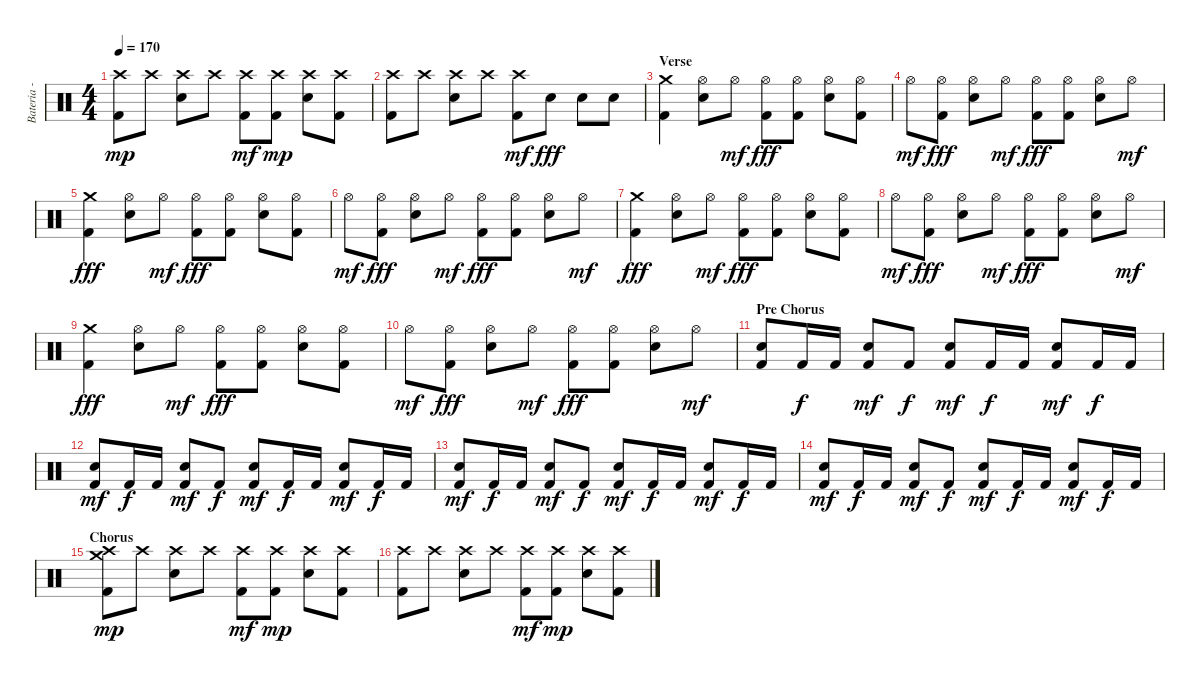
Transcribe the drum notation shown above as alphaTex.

\track ("Bateria - Larzon" "Bateria - ") {instrument percussion}
\staff {score}
\articulation defaults
\ts (4 4)
\tempo 170
\clef neutral
\ks c
("Kick (hit) 2" "Crash high (hit)").8{dy mp} "Crash high (hit)".8 ("Snare (hit) 2" "Crash high (hit)").8 "Crash high (hit)".8 ("Kick (hit) 2" "Crash high (hit)").8{dy mf} ("Kick (hit) 2" "Crash high (hit)").8{dy mp} ("Snare (hit) 2" "Crash high (hit)").8 ("Kick (hit) 2" "Crash high (hit)").8 |
("Kick (hit) 2" "Crash high (hit)").8 "Crash high (hit)".8 ("Snare (hit) 2" "Crash high (hit)").8 "Crash high (hit)".8 ("Kick (hit) 2" "Crash high (hit)").8{dy mf} "Electric Snare (hit)".8{dy fff} "Electric Snare (hit)".8 "Electric Snare (hit)".8 |
\section ("" "Verse")
("Crash medium (hit)" "Kick (hit) 2").4 ("Hi-Hat (open)" "Snare (hit) 2").8 "Hi-Hat (open)".8{dy mf} ("Hi-Hat (open)" "Kick (hit) 2").8{dy fff} ("Hi-Hat (open)" "Kick (hit) 2").8 ("Hi-Hat (open)" "Snare (hit) 2").8 ("Hi-Hat (open)" "Kick (hit) 2").8 |
"Hi-Hat (open)".8{dy mf} ("Hi-Hat (open)" "Kick (hit) 2").8{dy fff} ("Hi-Hat (open)" "Snare (hit) 2").8 "Hi-Hat (open)".8{dy mf} ("Hi-Hat (open)" "Kick (hit) 2").8{dy fff} ("Hi-Hat (open)" "Kick (hit) 2").8 ("Hi-Hat (open)" "Snare (hit) 2").8 "Hi-Hat (open)".8{dy mf} |
("Crash medium (hit)" "Kick (hit) 2").4{dy fff} ("Hi-Hat (open)" "Snare (hit) 2").8 "Hi-Hat (open)".8{dy mf} ("Hi-Hat (open)" "Kick (hit) 2").8{dy fff} ("Hi-Hat (open)" "Kick (hit) 2").8 ("Hi-Hat (open)" "Snare (hit) 2").8 ("Hi-Hat (open)" "Kick (hit) 2").8 |
"Hi-Hat (open)".8{dy mf} ("Hi-Hat (open)" "Kick (hit) 2").8{dy fff} ("Hi-Hat (open)" "Snare (hit) 2").8 "Hi-Hat (open)".8{dy mf} ("Hi-Hat (open)" "Kick (hit) 2").8{dy fff} ("Hi-Hat (open)" "Kick (hit) 2").8 ("Hi-Hat (open)" "Snare (hit) 2").8 "Hi-Hat (open)".8{dy mf} |
("Crash medium (hit)" "Kick (hit) 2").4{dy fff} ("Hi-Hat (open)" "Snare (hit) 2").8 "Hi-Hat (open)".8{dy mf} ("Hi-Hat (open)" "Kick (hit) 2").8{dy fff} ("Hi-Hat (open)" "Kick (hit) 2").8 ("Hi-Hat (open)" "Snare (hit) 2").8 ("Hi-Hat (open)" "Kick (hit) 2").8 |
"Hi-Hat (open)".8{dy mf} ("Hi-Hat (open)" "Kick (hit) 2").8{dy fff} ("Hi-Hat (open)" "Snare (hit) 2").8 "Hi-Hat (open)".8{dy mf} ("Hi-Hat (open)" "Kick (hit) 2").8{dy fff} ("Hi-Hat (open)" "Kick (hit) 2").8 ("Hi-Hat (open)" "Snare (hit) 2").8 "Hi-Hat (open)".8{dy mf} |
("Crash medium (hit)" "Kick (hit) 2").4{dy fff} ("Hi-Hat (open)" "Snare (hit) 2").8 "Hi-Hat (open)".8{dy mf} ("Hi-Hat (open)" "Kick (hit) 2").8{dy fff} ("Hi-Hat (open)" "Kick (hit) 2").8 ("Hi-Hat (open)" "Snare (hit) 2").8 ("Hi-Hat (open)" "Kick (hit) 2").8 |
"Hi-Hat (open)".8{dy mf} ("Hi-Hat (open)" "Kick (hit) 2").8{dy fff} ("Hi-Hat (open)" "Snare (hit) 2").8 "Hi-Hat (open)".8{dy mf} ("Hi-Hat (open)" "Kick (hit) 2").8{dy fff} ("Hi-Hat (open)" "Kick (hit) 2").8 ("Hi-Hat (open)" "Snare (hit) 2").8 "Hi-Hat (open)".8{dy mf} |
\section ("" "Pre Chorus")
("Kick (hit) 2" "Snare (hit) 2").8 "Kick (hit) 2".16{dy f} "Kick (hit) 2".16 ("Kick (hit) 2" "Snare (hit) 2").8{dy mf} "Kick (hit) 2".8{dy f} ("Kick (hit) 2" "Snare (hit) 2").8{dy mf} "Kick (hit) 2".16{dy f} "Kick (hit) 2".16 ("Kick (hit) 2" "Snare (hit) 2").8{dy mf} "Kick (hit) 2".16{dy f} "Kick (hit) 2".16 |
("Kick (hit) 2" "Snare (hit) 2").8{dy mf} "Kick (hit) 2".16{dy f} "Kick (hit) 2".16 ("Kick (hit) 2" "Snare (hit) 2").8{dy mf} "Kick (hit) 2".8{dy f} ("Kick (hit) 2" "Snare (hit) 2").8{dy mf} "Kick (hit) 2".16{dy f} "Kick (hit) 2".16 ("Kick (hit) 2" "Snare (hit) 2").8{dy mf} "Kick (hit) 2".16{dy f} "Kick (hit) 2".16 |
("Kick (hit) 2" "Snare (hit) 2").8{dy mf} "Kick (hit) 2".16{dy f} "Kick (hit) 2".16 ("Kick (hit) 2" "Snare (hit) 2").8{dy mf} "Kick (hit) 2".8{dy f} ("Kick (hit) 2" "Snare (hit) 2").8{dy mf} "Kick (hit) 2".16{dy f} "Kick (hit) 2".16 ("Kick (hit) 2" "Snare (hit) 2").8{dy mf} "Kick (hit) 2".16{dy f} "Kick (hit) 2".16 |
("Kick (hit) 2" "Snare (hit) 2").8{dy mf volume 16} "Kick (hit) 2".16{dy f} "Kick (hit) 2".16 ("Kick (hit) 2" "Snare (hit) 2").8{dy mf} "Kick (hit) 2".8{dy f} ("Kick (hit) 2" "Snare (hit) 2").8{dy mf} "Kick (hit) 2".16{dy f} "Kick (hit) 2".16 ("Kick (hit) 2" "Snare (hit) 2").8{dy mf} "Kick (hit) 2".16{dy f} "Kick (hit) 2".16 |
\section ("" "Chorus")
("Kick (hit) 2" "Crash medium (hit)" "Crash high (hit)").8{dy mp volume 13} "Crash high (hit)".8 ("Snare (hit) 2" "Crash high (hit)").8 "Crash high (hit)".8 ("Kick (hit) 2" "Crash high (hit)").8{dy mf} ("Kick (hit) 2" "Crash high (hit)").8{dy mp} ("Snare (hit) 2" "Crash high (hit)").8 ("Kick (hit) 2" "Crash high (hit)").8 |
("Kick (hit) 2" "Crash high (hit)").8 "Crash high (hit)".8 ("Snare (hit) 2" "Crash high (hit)").8 "Crash high (hit)".8 ("Kick (hit) 2" "Crash high (hit)").8{dy mf} ("Kick (hit) 2" "Crash high (hit)").8{dy mp} ("Snare (hit) 2" "Crash high (hit)").8 ("Kick (hit) 2" "Crash high (hit)").8
